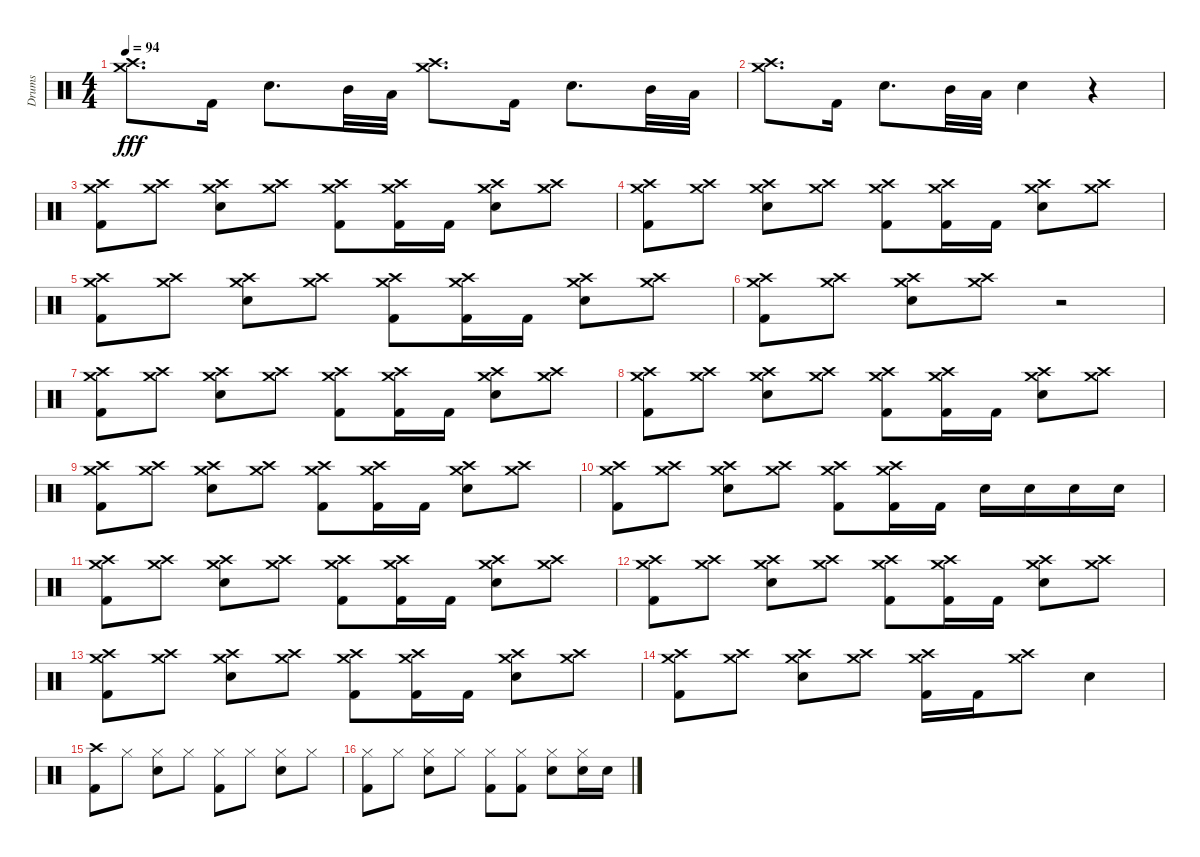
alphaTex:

\track ("Drums" "Drums") {instrument percussion}
\staff {score}
\articulation defaults
\ts (4 4)
\tempo 94
\clef neutral
\ks c
("Crash high (hit)" "Crash medium (hit)").8{d dy fff} "Kick (hit) 2".16 "Snare (hit) 2".8{d} "Mid Tom (hit)".32 "Low Tom (hit)".32 ("Crash high (hit)" "Crash medium (hit)").8{d} "Kick (hit) 2".16 "Snare (hit) 2".8{d} "Mid Tom (hit)".32 "Low Tom (hit)".32 |
("Crash high (hit)" "Crash medium (hit)").8{d} "Kick (hit) 2".16 "Snare (hit) 2".8{d} "Mid Tom (hit)".32 "Low Tom (hit)".32 "Snare (hit) 2".4 r.4 |
("Crash high (hit)" "Crash medium (hit)" "Kick (hit) 2").8 ("Crash high (hit)" "Crash medium (hit)").8 ("Crash high (hit)" "Crash medium (hit)" "Snare (hit) 2").8 ("Crash high (hit)" "Crash medium (hit)").8 ("Crash high (hit)" "Crash medium (hit)" "Kick (hit) 2").8 ("Crash high (hit)" "Crash medium (hit)" "Kick (hit) 2").16 "Kick (hit) 2".16 ("Crash high (hit)" "Crash medium (hit)" "Snare (hit) 2").8 ("Crash high (hit)" "Crash medium (hit)").8 |
("Crash high (hit)" "Crash medium (hit)" "Kick (hit) 2").8 ("Crash high (hit)" "Crash medium (hit)").8 ("Crash high (hit)" "Crash medium (hit)" "Snare (hit) 2").8 ("Crash high (hit)" "Crash medium (hit)").8 ("Crash high (hit)" "Crash medium (hit)" "Kick (hit) 2").8 ("Crash high (hit)" "Crash medium (hit)" "Kick (hit) 2").16 "Kick (hit) 2".16 ("Crash high (hit)" "Crash medium (hit)" "Snare (hit) 2").8 ("Crash high (hit)" "Crash medium (hit)").8 |
("Crash high (hit)" "Crash medium (hit)" "Kick (hit) 2").8 ("Crash high (hit)" "Crash medium (hit)").8 ("Crash high (hit)" "Crash medium (hit)" "Snare (hit) 2").8 ("Crash high (hit)" "Crash medium (hit)").8 ("Crash high (hit)" "Crash medium (hit)" "Kick (hit) 2").8 ("Crash high (hit)" "Crash medium (hit)" "Kick (hit) 2").16 "Kick (hit) 2".16 ("Crash high (hit)" "Crash medium (hit)" "Snare (hit) 2").8 ("Crash high (hit)" "Crash medium (hit)").8 |
("Crash high (hit)" "Crash medium (hit)" "Kick (hit) 2").8 ("Crash high (hit)" "Crash medium (hit)").8 ("Crash high (hit)" "Crash medium (hit)" "Snare (hit) 2").8 ("Crash high (hit)" "Crash medium (hit)").8 r.2 |
("Crash high (hit)" "Crash medium (hit)" "Kick (hit) 2").8 ("Crash high (hit)" "Crash medium (hit)").8 ("Crash high (hit)" "Crash medium (hit)" "Snare (hit) 2").8 ("Crash high (hit)" "Crash medium (hit)").8 ("Crash high (hit)" "Crash medium (hit)" "Kick (hit) 2").8 ("Crash high (hit)" "Crash medium (hit)" "Kick (hit) 2").16 "Kick (hit) 2".16 ("Crash high (hit)" "Crash medium (hit)" "Snare (hit) 2").8 ("Crash high (hit)" "Crash medium (hit)").8 |
("Crash high (hit)" "Crash medium (hit)" "Kick (hit) 2").8 ("Crash high (hit)" "Crash medium (hit)").8 ("Crash high (hit)" "Crash medium (hit)" "Snare (hit) 2").8 ("Crash high (hit)" "Crash medium (hit)").8 ("Crash high (hit)" "Crash medium (hit)" "Kick (hit) 2").8 ("Crash high (hit)" "Crash medium (hit)" "Kick (hit) 2").16 "Kick (hit) 2".16 ("Crash high (hit)" "Crash medium (hit)" "Snare (hit) 2").8 ("Crash high (hit)" "Crash medium (hit)").8 |
("Crash high (hit)" "Crash medium (hit)" "Kick (hit) 2").8 ("Crash high (hit)" "Crash medium (hit)").8 ("Crash high (hit)" "Crash medium (hit)" "Snare (hit) 2").8 ("Crash high (hit)" "Crash medium (hit)").8 ("Crash high (hit)" "Crash medium (hit)" "Kick (hit) 2").8 ("Crash high (hit)" "Crash medium (hit)" "Kick (hit) 2").16 "Kick (hit) 2".16 ("Crash high (hit)" "Crash medium (hit)" "Snare (hit) 2").8 ("Crash high (hit)" "Crash medium (hit)").8 |
("Crash high (hit)" "Crash medium (hit)" "Kick (hit) 2").8 ("Crash high (hit)" "Crash medium (hit)").8 ("Crash high (hit)" "Crash medium (hit)" "Snare (hit) 2").8 ("Crash high (hit)" "Crash medium (hit)").8 ("Crash high (hit)" "Crash medium (hit)" "Kick (hit) 2").8 ("Crash high (hit)" "Crash medium (hit)" "Kick (hit) 2").16 "Kick (hit) 2".16 "Snare (hit) 2".16 "Snare (hit) 2".16 "Snare (hit) 2".16 "Snare (hit) 2".16 |
("Crash high (hit)" "Crash medium (hit)" "Kick (hit) 2").8 ("Crash high (hit)" "Crash medium (hit)").8 ("Crash high (hit)" "Crash medium (hit)" "Snare (hit) 2").8 ("Crash high (hit)" "Crash medium (hit)").8 ("Crash high (hit)" "Crash medium (hit)" "Kick (hit) 2").8 ("Crash high (hit)" "Crash medium (hit)" "Kick (hit) 2").16 "Kick (hit) 2".16 ("Crash high (hit)" "Crash medium (hit)" "Snare (hit) 2").8 ("Crash high (hit)" "Crash medium (hit)").8 |
("Crash high (hit)" "Crash medium (hit)" "Kick (hit) 2").8 ("Crash high (hit)" "Crash medium (hit)").8 ("Crash high (hit)" "Crash medium (hit)" "Snare (hit) 2").8 ("Crash high (hit)" "Crash medium (hit)").8 ("Crash high (hit)" "Crash medium (hit)" "Kick (hit) 2").8 ("Crash high (hit)" "Crash medium (hit)" "Kick (hit) 2").16 "Kick (hit) 2".16 ("Crash high (hit)" "Crash medium (hit)" "Snare (hit) 2").8 ("Crash high (hit)" "Crash medium (hit)").8 |
("Crash high (hit)" "Crash medium (hit)" "Kick (hit) 2").8 ("Crash high (hit)" "Crash medium (hit)").8 ("Crash high (hit)" "Crash medium (hit)" "Snare (hit) 2").8 ("Crash high (hit)" "Crash medium (hit)").8 ("Crash high (hit)" "Crash medium (hit)" "Kick (hit) 2").8 ("Crash high (hit)" "Crash medium (hit)" "Kick (hit) 2").16 "Kick (hit) 2".16 ("Crash high (hit)" "Crash medium (hit)" "Snare (hit) 2").8 ("Crash high (hit)" "Crash medium (hit)").8 |
("Crash high (hit)" "Crash medium (hit)" "Kick (hit) 2").8 ("Crash high (hit)" "Crash medium (hit)").8 ("Crash high (hit)" "Crash medium (hit)" "Snare (hit) 2").8 ("Crash high (hit)" "Crash medium (hit)").8 ("Crash high (hit)" "Crash medium (hit)" "Kick (hit) 2").16 "Kick (hit) 2".16 ("Crash high (hit)" "Crash medium (hit)").8 "Snare (hit) 2".4 |
("Crash high (hit)" "Kick (hit) 2").8 "Hi-Hat (closed)".8 ("Hi-Hat (closed)" "Snare (hit) 2").8 "Hi-Hat (closed)".8 ("Hi-Hat (closed)" "Kick (hit) 2").8 "Hi-Hat (closed)".8 ("Hi-Hat (closed)" "Snare (hit) 2").8 "Hi-Hat (closed)".8 |
("Hi-Hat (closed)" "Kick (hit) 2").8 "Hi-Hat (closed)".8 ("Hi-Hat (closed)" "Snare (hit) 2").8 "Hi-Hat (closed)".8 ("Hi-Hat (closed)" "Kick (hit) 2").8 ("Hi-Hat (closed)" "Kick (hit) 2").8 ("Hi-Hat (closed)" "Snare (hit) 2").8 ("Hi-Hat (closed)" "Snare (hit) 2").16 "Snare (hit) 2".16
